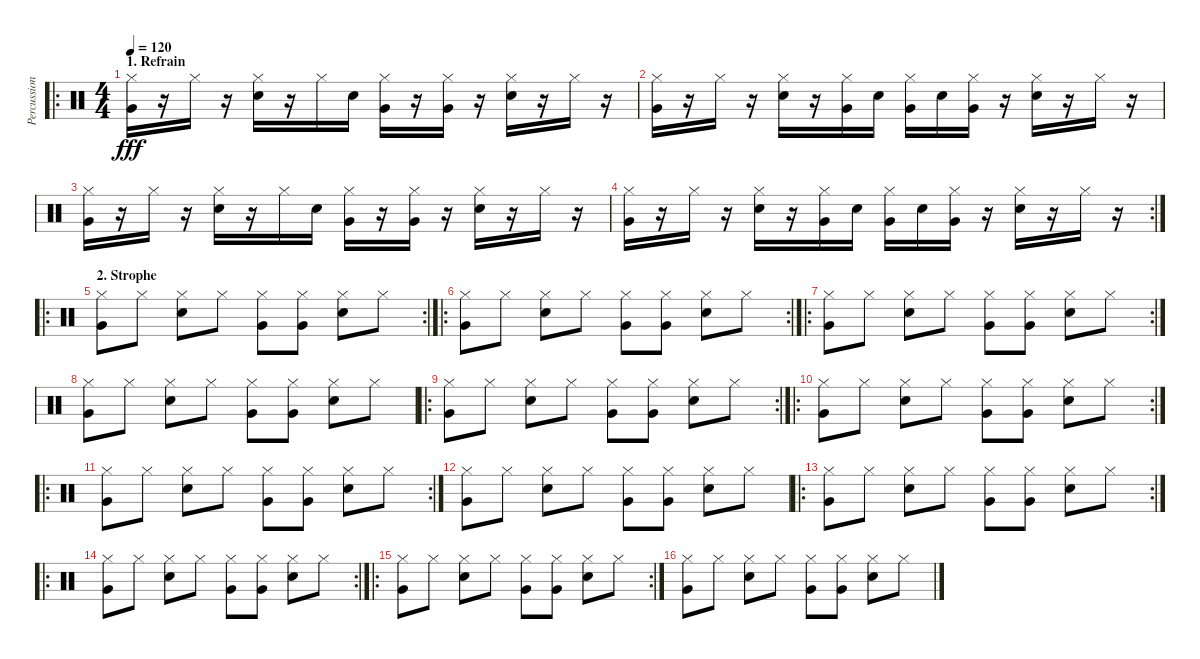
\track ("Percussion" "Percussion") {instrument percussion}
\staff {score}
\articulation defaults
\ro
\ts (4 4)
\section ("" "1. Refrain")
\tempo 120
\clef neutral
\ks c
("Hi-Hat (closed)" "Very Low Tom (hit)").16{dy fff} r.16 "Hi-Hat (closed)".16 r.16 ("Hi-Hat (closed)" "Snare (hit) 2").16 r.16 "Hi-Hat (closed)".16 "Snare (hit) 2".16 ("Hi-Hat (closed)" "Very Low Tom (hit)").16 r.16 ("Hi-Hat (closed)" "Very Low Tom (hit)").16 r.16 ("Hi-Hat (closed)" "Snare (hit) 2").16 r.16 "Hi-Hat (closed)".16 r.16 |
("Hi-Hat (closed)" "Very Low Tom (hit)").16 r.16 "Hi-Hat (closed)".16 r.16 ("Hi-Hat (closed)" "Snare (hit) 2").16 r.16 ("Hi-Hat (closed)" "Very Low Tom (hit)").16 "Snare (hit) 2".16 ("Hi-Hat (closed)" "Very Low Tom (hit)").16 "Snare (hit) 2".16 ("Hi-Hat (closed)" "Very Low Tom (hit)").16 r.16 ("Hi-Hat (closed)" "Snare (hit) 2").16 r.16 "Hi-Hat (closed)".16 r.16 |
("Hi-Hat (closed)" "Very Low Tom (hit)").16 r.16 "Hi-Hat (closed)".16 r.16 ("Hi-Hat (closed)" "Snare (hit) 2").16 r.16 "Hi-Hat (closed)".16 "Snare (hit) 2".16 ("Hi-Hat (closed)" "Very Low Tom (hit)").16 r.16 ("Hi-Hat (closed)" "Very Low Tom (hit)").16 r.16 ("Hi-Hat (closed)" "Snare (hit) 2").16 r.16 "Hi-Hat (closed)".16 r.16 |
\rc 2
("Hi-Hat (closed)" "Very Low Tom (hit)").16 r.16 "Hi-Hat (closed)".16 r.16 ("Hi-Hat (closed)" "Snare (hit) 2").16 r.16 ("Hi-Hat (closed)" "Very Low Tom (hit)").16 "Snare (hit) 2".16 ("Hi-Hat (closed)" "Very Low Tom (hit)").16 "Snare (hit) 2".16 ("Hi-Hat (closed)" "Very Low Tom (hit)").16 r.16 ("Hi-Hat (closed)" "Snare (hit) 2").16 r.16 "Hi-Hat (closed)".16 r.16 |
\ro
\rc 2
\section ("" "2. Strophe")
("Hi-Hat (closed)" "Very Low Tom (hit)").8 "Hi-Hat (closed)".8 ("Hi-Hat (closed)" "Snare (hit) 2").8 "Hi-Hat (closed)".8 ("Hi-Hat (closed)" "Very Low Tom (hit)").8 ("Hi-Hat (closed)" "Very Low Tom (hit)").8 ("Hi-Hat (closed)" "Snare (hit) 2").8 "Hi-Hat (closed)".8 |
\ro
\rc 2
("Hi-Hat (closed)" "Very Low Tom (hit)").8 "Hi-Hat (closed)".8 ("Hi-Hat (closed)" "Snare (hit) 2").8 "Hi-Hat (closed)".8 ("Hi-Hat (closed)" "Very Low Tom (hit)").8 ("Hi-Hat (closed)" "Very Low Tom (hit)").8 ("Hi-Hat (closed)" "Snare (hit) 2").8 "Hi-Hat (closed)".8 |
\ro
\rc 2
("Hi-Hat (closed)" "Very Low Tom (hit)").8 "Hi-Hat (closed)".8 ("Hi-Hat (closed)" "Snare (hit) 2").8 "Hi-Hat (closed)".8 ("Hi-Hat (closed)" "Very Low Tom (hit)").8 ("Hi-Hat (closed)" "Very Low Tom (hit)").8 ("Hi-Hat (closed)" "Snare (hit) 2").8 "Hi-Hat (closed)".8 |
("Hi-Hat (closed)" "Very Low Tom (hit)").8 "Hi-Hat (closed)".8 ("Hi-Hat (closed)" "Snare (hit) 2").8 "Hi-Hat (closed)".8 ("Hi-Hat (closed)" "Very Low Tom (hit)").8 ("Hi-Hat (closed)" "Very Low Tom (hit)").8 ("Hi-Hat (closed)" "Snare (hit) 2").8 "Hi-Hat (closed)".8 |
\ro
\rc 2
("Hi-Hat (closed)" "Very Low Tom (hit)").8 "Hi-Hat (closed)".8 ("Hi-Hat (closed)" "Snare (hit) 2").8 "Hi-Hat (closed)".8 ("Hi-Hat (closed)" "Very Low Tom (hit)").8 ("Hi-Hat (closed)" "Very Low Tom (hit)").8 ("Hi-Hat (closed)" "Snare (hit) 2").8 "Hi-Hat (closed)".8 |
\ro
\rc 2
("Hi-Hat (closed)" "Very Low Tom (hit)").8 "Hi-Hat (closed)".8 ("Hi-Hat (closed)" "Snare (hit) 2").8 "Hi-Hat (closed)".8 ("Hi-Hat (closed)" "Very Low Tom (hit)").8 ("Hi-Hat (closed)" "Very Low Tom (hit)").8 ("Hi-Hat (closed)" "Snare (hit) 2").8 "Hi-Hat (closed)".8 |
\ro
\rc 2
("Hi-Hat (closed)" "Very Low Tom (hit)").8 "Hi-Hat (closed)".8 ("Hi-Hat (closed)" "Snare (hit) 2").8 "Hi-Hat (closed)".8 ("Hi-Hat (closed)" "Very Low Tom (hit)").8 ("Hi-Hat (closed)" "Very Low Tom (hit)").8 ("Hi-Hat (closed)" "Snare (hit) 2").8 "Hi-Hat (closed)".8 |
("Hi-Hat (closed)" "Very Low Tom (hit)").8 "Hi-Hat (closed)".8 ("Hi-Hat (closed)" "Snare (hit) 2").8 "Hi-Hat (closed)".8 ("Hi-Hat (closed)" "Very Low Tom (hit)").8 ("Hi-Hat (closed)" "Very Low Tom (hit)").8 ("Hi-Hat (closed)" "Snare (hit) 2").8 "Hi-Hat (closed)".8 |
\ro
\rc 2
("Hi-Hat (closed)" "Very Low Tom (hit)").8 "Hi-Hat (closed)".8 ("Hi-Hat (closed)" "Snare (hit) 2").8 "Hi-Hat (closed)".8 ("Hi-Hat (closed)" "Very Low Tom (hit)").8 ("Hi-Hat (closed)" "Very Low Tom (hit)").8 ("Hi-Hat (closed)" "Snare (hit) 2").8 "Hi-Hat (closed)".8 |
\ro
\rc 2
("Hi-Hat (closed)" "Very Low Tom (hit)").8 "Hi-Hat (closed)".8 ("Hi-Hat (closed)" "Snare (hit) 2").8 "Hi-Hat (closed)".8 ("Hi-Hat (closed)" "Very Low Tom (hit)").8 ("Hi-Hat (closed)" "Very Low Tom (hit)").8 ("Hi-Hat (closed)" "Snare (hit) 2").8 "Hi-Hat (closed)".8 |
\ro
\rc 2
("Hi-Hat (closed)" "Very Low Tom (hit)").8 "Hi-Hat (closed)".8 ("Hi-Hat (closed)" "Snare (hit) 2").8 "Hi-Hat (closed)".8 ("Hi-Hat (closed)" "Very Low Tom (hit)").8 ("Hi-Hat (closed)" "Very Low Tom (hit)").8 ("Hi-Hat (closed)" "Snare (hit) 2").8 "Hi-Hat (closed)".8 |
("Hi-Hat (closed)" "Very Low Tom (hit)").8 "Hi-Hat (closed)".8 ("Hi-Hat (closed)" "Snare (hit) 2").8 "Hi-Hat (closed)".8 ("Hi-Hat (closed)" "Very Low Tom (hit)").8 ("Hi-Hat (closed)" "Very Low Tom (hit)").8 ("Hi-Hat (closed)" "Snare (hit) 2").8 "Hi-Hat (closed)".8
